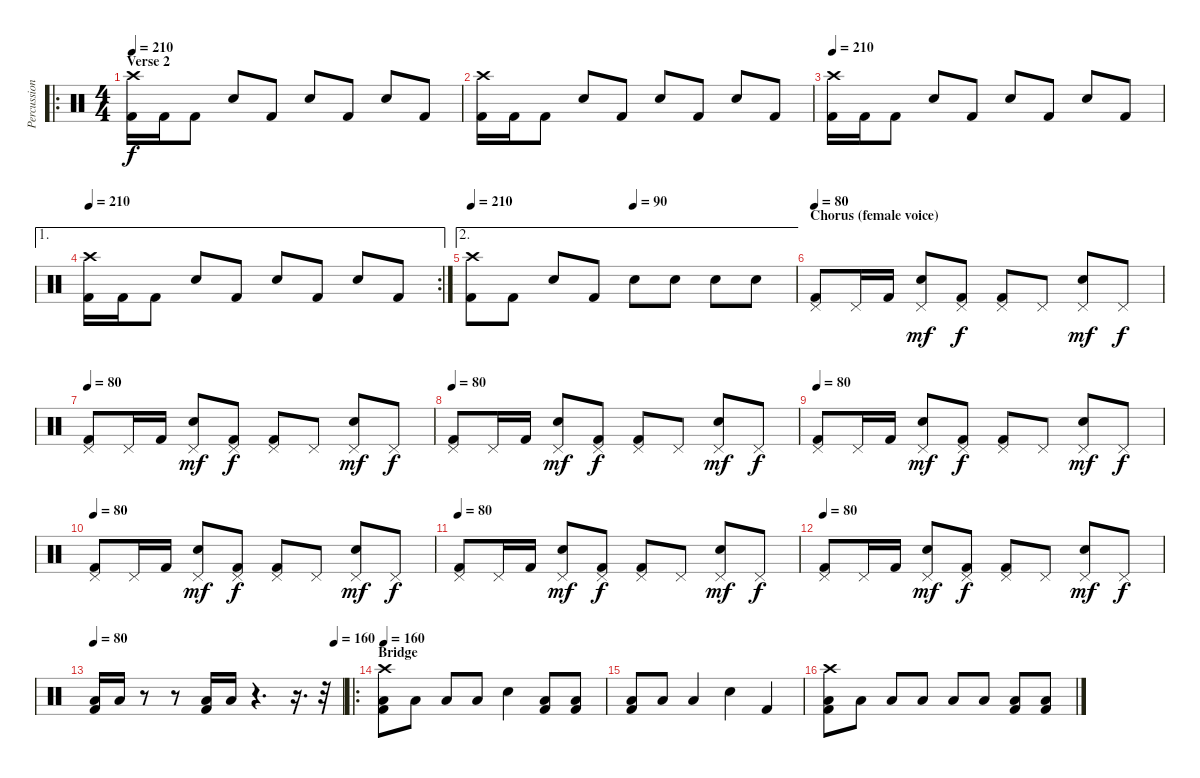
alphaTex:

\track ("Percussion" "Percussion") {instrument percussion}
\staff {score}
\articulation defaults
\ro
\ts (4 4)
\section ("" "Verse 2")
\tempo 210
\clef neutral
\ks c
("Crash high (hit)" "Kick (hit) 2").16{dy f} "Kick (hit) 2".16 "Kick (hit) 2".8 "Electric Snare (hit)".8 "Kick (hit) 2".8 "Electric Snare (hit)".8 "Kick (hit) 2".8 "Electric Snare (hit)".8 "Kick (hit) 2".8 |
("Crash high (hit)" "Kick (hit) 2").16 "Kick (hit) 2".16 "Kick (hit) 2".8 "Electric Snare (hit)".8 "Kick (hit) 2".8 "Electric Snare (hit)".8 "Kick (hit) 2".8 "Electric Snare (hit)".8 "Kick (hit) 2".8 |
\tempo 210
("Crash high (hit)" "Kick (hit) 2").16 "Kick (hit) 2".16 "Kick (hit) 2".8 "Electric Snare (hit)".8 "Kick (hit) 2".8 "Electric Snare (hit)".8 "Kick (hit) 2".8 "Electric Snare (hit)".8 "Kick (hit) 2".8 |
\ae 1
\rc 2
\tempo 210
("Crash high (hit)" "Kick (hit) 2").16 "Kick (hit) 2".16 "Kick (hit) 2".8 "Electric Snare (hit)".8 "Kick (hit) 2".8 "Electric Snare (hit)".8 "Kick (hit) 2".8 "Electric Snare (hit)".8 "Kick (hit) 2".8 |
\ae 2
\tempo 210
\tempo (90 0.5)
("Crash high (hit)" "Kick (hit) 2").8 "Kick (hit) 2".8 "Electric Snare (hit)".8 "Kick (hit) 2".8 "Electric Snare (hit)".8 "Electric Snare (hit)".8 "Electric Snare (hit)".8 "Electric Snare (hit)".8 |
\section ("" "Chorus (female voice)")
\tempo 80
("Pedal Hi-Hat (hit)" "Kick (hit) 2").8{volume 13} "Pedal Hi-Hat (hit)".16 "Kick (hit) 2".16 ("Pedal Hi-Hat (hit)" "Electric Snare (hit)").8{dy mf} ("Pedal Hi-Hat (hit)" "Kick (hit) 2").8{dy f} ("Pedal Hi-Hat (hit)" "Kick (hit) 2").8 "Pedal Hi-Hat (hit)".8 ("Pedal Hi-Hat (hit)" "Electric Snare (hit)").8{dy mf} "Pedal Hi-Hat (hit)".8{dy f} |
\tempo 80
("Pedal Hi-Hat (hit)" "Kick (hit) 2").8 "Pedal Hi-Hat (hit)".16 "Kick (hit) 2".16 ("Pedal Hi-Hat (hit)" "Electric Snare (hit)").8{dy mf} ("Pedal Hi-Hat (hit)" "Kick (hit) 2").8{dy f} ("Pedal Hi-Hat (hit)" "Kick (hit) 2").8 "Pedal Hi-Hat (hit)".8 ("Pedal Hi-Hat (hit)" "Electric Snare (hit)").8{dy mf} "Pedal Hi-Hat (hit)".8{dy f} |
\tempo 80
("Pedal Hi-Hat (hit)" "Kick (hit) 2").8{volume 13} "Pedal Hi-Hat (hit)".16 "Kick (hit) 2".16 ("Pedal Hi-Hat (hit)" "Electric Snare (hit)").8{dy mf} ("Pedal Hi-Hat (hit)" "Kick (hit) 2").8{dy f} ("Pedal Hi-Hat (hit)" "Kick (hit) 2").8 "Pedal Hi-Hat (hit)".8 ("Pedal Hi-Hat (hit)" "Electric Snare (hit)").8{dy mf} "Pedal Hi-Hat (hit)".8{dy f} |
\tempo 80
("Pedal Hi-Hat (hit)" "Kick (hit) 2").8 "Pedal Hi-Hat (hit)".16 "Kick (hit) 2".16 ("Pedal Hi-Hat (hit)" "Electric Snare (hit)").8{dy mf} ("Pedal Hi-Hat (hit)" "Kick (hit) 2").8{dy f} ("Pedal Hi-Hat (hit)" "Kick (hit) 2").8 "Pedal Hi-Hat (hit)".8 ("Pedal Hi-Hat (hit)" "Electric Snare (hit)").8{dy mf} "Pedal Hi-Hat (hit)".8{dy f} |
\tempo 80
("Pedal Hi-Hat (hit)" "Kick (hit) 2").8{volume 13} "Pedal Hi-Hat (hit)".16 "Kick (hit) 2".16 ("Pedal Hi-Hat (hit)" "Electric Snare (hit)").8{dy mf} ("Pedal Hi-Hat (hit)" "Kick (hit) 2").8{dy f} ("Pedal Hi-Hat (hit)" "Kick (hit) 2").8 "Pedal Hi-Hat (hit)".8 ("Pedal Hi-Hat (hit)" "Electric Snare (hit)").8{dy mf} "Pedal Hi-Hat (hit)".8{dy f} |
\tempo 80
("Pedal Hi-Hat (hit)" "Kick (hit) 2").8 "Pedal Hi-Hat (hit)".16 "Kick (hit) 2".16 ("Pedal Hi-Hat (hit)" "Electric Snare (hit)").8{dy mf} ("Pedal Hi-Hat (hit)" "Kick (hit) 2").8{dy f} ("Pedal Hi-Hat (hit)" "Kick (hit) 2").8 "Pedal Hi-Hat (hit)".8 ("Pedal Hi-Hat (hit)" "Electric Snare (hit)").8{dy mf} "Pedal Hi-Hat (hit)".8{dy f} |
\tempo 80
("Pedal Hi-Hat (hit)" "Kick (hit) 2").8 "Pedal Hi-Hat (hit)".16 "Kick (hit) 2".16 ("Pedal Hi-Hat (hit)" "Electric Snare (hit)").8{dy mf} ("Pedal Hi-Hat (hit)" "Kick (hit) 2").8{dy f} ("Pedal Hi-Hat (hit)" "Kick (hit) 2").8 "Pedal Hi-Hat (hit)".8 ("Pedal Hi-Hat (hit)" "Electric Snare (hit)").8{dy mf} "Pedal Hi-Hat (hit)".8{dy f} |
\tempo 80
\tempo (160 0.96875)
("Low Floor Tom (hit)" "Kick (hit) 2").16 "Low Floor Tom (hit)".16 r.8 r.8 ("Low Floor Tom (hit)" "Kick (hit) 2").16 "Low Floor Tom (hit)".16 r.4{d} r.16{d} r.32 |
\ro
\section ("" "Bridge")
\tempo 160
("Crash high (hit)" "Low Floor Tom (hit)" "Kick (hit) 2").8{volume 16} "Low Floor Tom (hit)".8 "Low Floor Tom (hit)".8 "Low Floor Tom (hit)".8 "Electric Snare (hit)".4 ("Low Floor Tom (hit)" "Kick (hit) 2").8 ("Low Floor Tom (hit)" "Kick (hit) 2").8 |
("Low Floor Tom (hit)" "Kick (hit) 2").8 "Low Floor Tom (hit)".8 "Low Floor Tom (hit)".4 "Electric Snare (hit)".4 "Kick (hit) 2".4 |
("Crash high (hit)" "Low Floor Tom (hit)" "Kick (hit) 2").8 "Low Floor Tom (hit)".8 "Low Floor Tom (hit)".8 "Low Floor Tom (hit)".8 "Low Floor Tom (hit)".8 "Low Floor Tom (hit)".8 ("Low Floor Tom (hit)" "Kick (hit) 2").8 ("Low Floor Tom (hit)" "Kick (hit) 2").8
